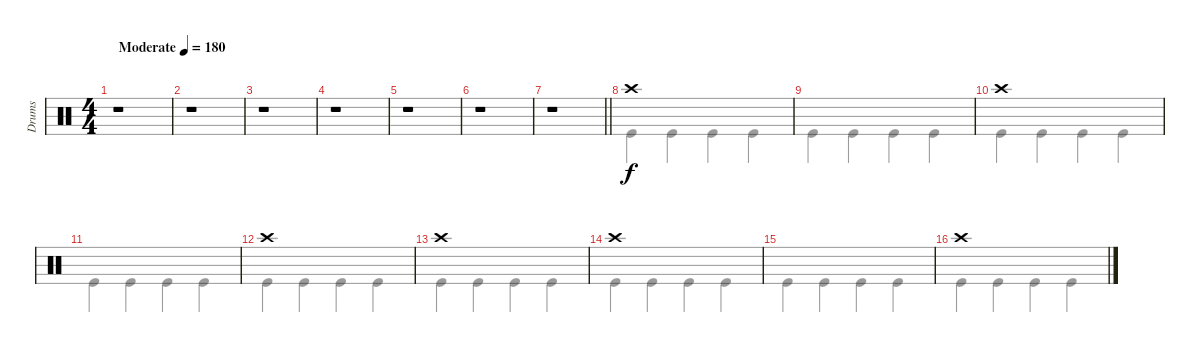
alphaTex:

\track ("Drums" "Drums") {instrument percussion}
\staff {score}
\articulation defaults
\voice
\ts (4 4)
\tempo (180 "Moderate")
\clef neutral
\ks c
r.1{dy f} |
r.1 |
r.1 |
r.1 |
r.1 |
r.1 |
\barLineRight lightlight
r.1 |
"Crash high (hit)".1 |
|
"Crash high (hit)".1 |
|
"Crash high (hit)".1 |
"Crash high (hit)".1 |
"Crash high (hit)".1 |
|
"Crash high (hit)".1
\voice
\clef neutral
\ottava regular
\simile none
\ks c
r.1{dy f} |
r.1 |
r.1 |
r.1 |
r.1 |
r.1 |
\barLineRight lightlight
r.1 |
"Kick (hit)".4 "Kick (hit)".4 "Kick (hit)".4 "Kick (hit)".4 |
"Kick (hit)".4 "Kick (hit)".4 "Kick (hit)".4 "Kick (hit)".4 |
"Kick (hit)".4 "Kick (hit)".4 "Kick (hit)".4 "Kick (hit)".4 |
"Kick (hit)".4 "Kick (hit)".4 "Kick (hit)".4 "Kick (hit)".4 |
"Kick (hit)".4 "Kick (hit)".4 "Kick (hit)".4 "Kick (hit)".4 |
"Kick (hit)".4 "Kick (hit)".4 "Kick (hit)".4 "Kick (hit)".4 |
"Kick (hit)".4 "Kick (hit)".4 "Kick (hit)".4 "Kick (hit)".4 |
"Kick (hit)".4 "Kick (hit)".4 "Kick (hit)".4 "Kick (hit)".4 |
"Kick (hit)".4 "Kick (hit)".4 "Kick (hit)".4 "Kick (hit)".4
